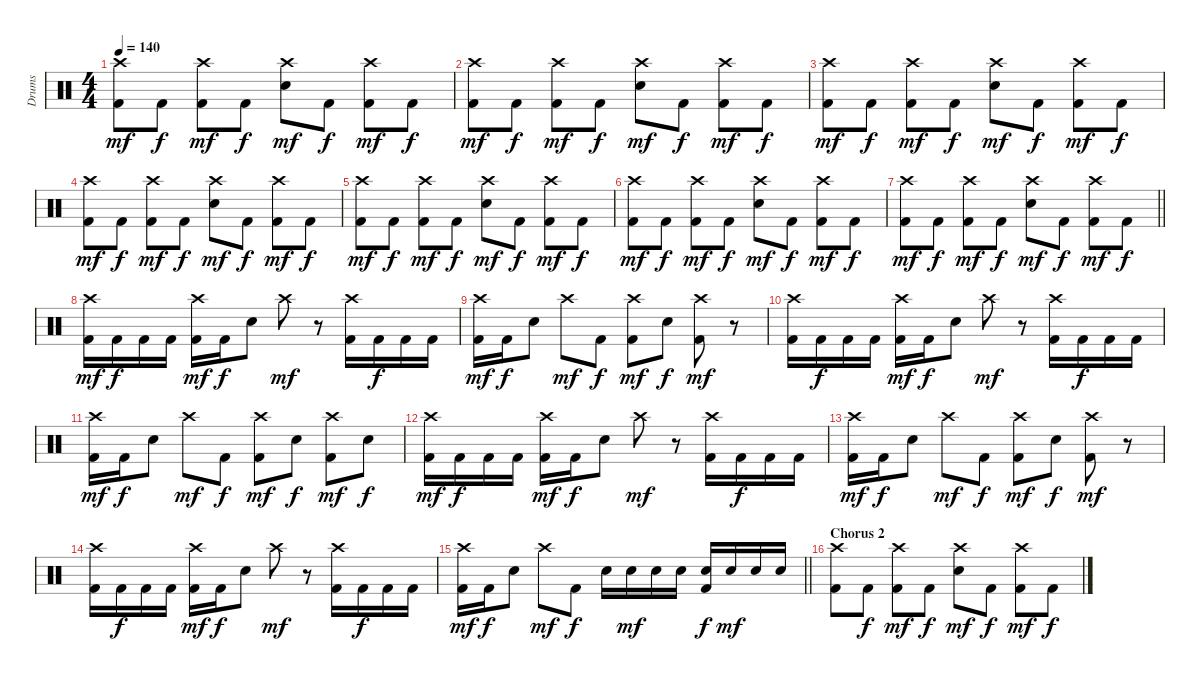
\track ("Drums" "Drums") {instrument percussion}
\staff {score}
\articulation defaults
\ts (4 4)
\tempo 140
\clef neutral
\ks c
("Crash high (hit)" "Kick (hit) 2").8{dy mf} "Kick (hit) 2".8{dy f} ("Crash high (hit)" "Kick (hit) 2").8{dy mf} "Kick (hit) 2".8{dy f} ("Crash high (hit)" "Snare (hit) 2").8{dy mf} "Kick (hit) 2".8{dy f} ("Crash high (hit)" "Kick (hit) 2").8{dy mf} "Kick (hit) 2".8{dy f} |
("Crash high (hit)" "Kick (hit) 2").8{dy mf} "Kick (hit) 2".8{dy f} ("Crash high (hit)" "Kick (hit) 2").8{dy mf} "Kick (hit) 2".8{dy f} ("Crash high (hit)" "Snare (hit) 2").8{dy mf} "Kick (hit) 2".8{dy f} ("Crash high (hit)" "Kick (hit) 2").8{dy mf} "Kick (hit) 2".8{dy f} |
("Crash high (hit)" "Kick (hit) 2").8{dy mf} "Kick (hit) 2".8{dy f} ("Crash high (hit)" "Kick (hit) 2").8{dy mf} "Kick (hit) 2".8{dy f} ("Crash high (hit)" "Snare (hit) 2").8{dy mf} "Kick (hit) 2".8{dy f} ("Crash high (hit)" "Kick (hit) 2").8{dy mf} "Kick (hit) 2".8{dy f} |
("Crash high (hit)" "Kick (hit) 2").8{dy mf} "Kick (hit) 2".8{dy f} ("Crash high (hit)" "Kick (hit) 2").8{dy mf} "Kick (hit) 2".8{dy f} ("Crash high (hit)" "Snare (hit) 2").8{dy mf} "Kick (hit) 2".8{dy f} ("Crash high (hit)" "Kick (hit) 2").8{dy mf} "Kick (hit) 2".8{dy f} |
("Crash high (hit)" "Kick (hit) 2").8{dy mf} "Kick (hit) 2".8{dy f} ("Crash high (hit)" "Kick (hit) 2").8{dy mf} "Kick (hit) 2".8{dy f} ("Crash high (hit)" "Snare (hit) 2").8{dy mf} "Kick (hit) 2".8{dy f} ("Crash high (hit)" "Kick (hit) 2").8{dy mf} "Kick (hit) 2".8{dy f} |
("Crash high (hit)" "Kick (hit) 2").8{dy mf} "Kick (hit) 2".8{dy f} ("Crash high (hit)" "Kick (hit) 2").8{dy mf} "Kick (hit) 2".8{dy f} ("Crash high (hit)" "Snare (hit) 2").8{dy mf} "Kick (hit) 2".8{dy f} ("Crash high (hit)" "Kick (hit) 2").8{dy mf} "Kick (hit) 2".8{dy f} |
\barLineRight lightlight
("Crash high (hit)" "Kick (hit) 2").8{dy mf} "Kick (hit) 2".8{dy f} ("Crash high (hit)" "Kick (hit) 2").8{dy mf} "Kick (hit) 2".8{dy f} ("Crash high (hit)" "Snare (hit) 2").8{dy mf} "Kick (hit) 2".8{dy f} ("Crash high (hit)" "Kick (hit) 2").8{dy mf} "Kick (hit) 2".8{dy f} |
("Crash high (hit)" "Kick (hit) 2").16{dy mf} "Kick (hit) 2".16{dy f} "Kick (hit) 2".16 "Kick (hit) 2".16 ("Crash high (hit)" "Kick (hit) 2").16{dy mf} "Kick (hit) 2".16{dy f} "Snare (hit) 2".8 "Crash high (hit)".8{dy mf} r.8 ("Crash high (hit)" "Kick (hit) 2").16 "Kick (hit) 2".16{dy f} "Kick (hit) 2".16 "Kick (hit) 2".16 |
("Crash high (hit)" "Kick (hit) 2").16{dy mf} "Kick (hit) 2".16{dy f} "Snare (hit) 2".8 "Crash high (hit)".8{dy mf} "Kick (hit) 2".8{dy f} ("Crash high (hit)" "Kick (hit) 2").8{dy mf} "Snare (hit) 2".8{dy f} ("Crash high (hit)" "Kick (hit) 2").8{dy mf} r.8 |
("Crash high (hit)" "Kick (hit) 2").16 "Kick (hit) 2".16{dy f} "Kick (hit) 2".16 "Kick (hit) 2".16 ("Crash high (hit)" "Kick (hit) 2").16{dy mf} "Kick (hit) 2".16{dy f} "Snare (hit) 2".8 "Crash high (hit)".8{dy mf} r.8 ("Crash high (hit)" "Kick (hit) 2").16 "Kick (hit) 2".16{dy f} "Kick (hit) 2".16 "Kick (hit) 2".16 |
("Crash high (hit)" "Kick (hit) 2").16{dy mf} "Kick (hit) 2".16{dy f} "Snare (hit) 2".8 "Crash high (hit)".8{dy mf} "Kick (hit) 2".8{dy f} ("Crash high (hit)" "Kick (hit) 2").8{dy mf} "Snare (hit) 2".8{dy f} ("Crash high (hit)" "Kick (hit) 2").8{dy mf} "Snare (hit) 2".8{dy f} |
("Crash high (hit)" "Kick (hit) 2").16{dy mf} "Kick (hit) 2".16{dy f} "Kick (hit) 2".16 "Kick (hit) 2".16 ("Crash high (hit)" "Kick (hit) 2").16{dy mf} "Kick (hit) 2".16{dy f} "Snare (hit) 2".8 "Crash high (hit)".8{dy mf} r.8 ("Crash high (hit)" "Kick (hit) 2").16 "Kick (hit) 2".16{dy f} "Kick (hit) 2".16 "Kick (hit) 2".16 |
("Crash high (hit)" "Kick (hit) 2").16{dy mf} "Kick (hit) 2".16{dy f} "Snare (hit) 2".8 "Crash high (hit)".8{dy mf} "Kick (hit) 2".8{dy f} ("Crash high (hit)" "Kick (hit) 2").8{dy mf} "Snare (hit) 2".8{dy f} ("Crash high (hit)" "Kick (hit) 2").8{dy mf} r.8 |
("Crash high (hit)" "Kick (hit) 2").16 "Kick (hit) 2".16{dy f} "Kick (hit) 2".16 "Kick (hit) 2".16 ("Crash high (hit)" "Kick (hit) 2").16{dy mf} "Kick (hit) 2".16{dy f} "Snare (hit) 2".8 "Crash high (hit)".8{dy mf} r.8 ("Crash high (hit)" "Kick (hit) 2").16 "Kick (hit) 2".16{dy f} "Kick (hit) 2".16 "Kick (hit) 2".16 |
\barLineRight lightlight
("Crash high (hit)" "Kick (hit) 2").16{dy mf} "Kick (hit) 2".16{dy f} "Snare (hit) 2".8 "Crash high (hit)".8{dy mf} "Kick (hit) 2".8{dy f} "Snare (hit) 2".16 "Snare (hit) 2".16{dy mf} "Snare (hit) 2".16 "Snare (hit) 2".16 ("Snare (hit) 2" "Kick (hit) 2").16{dy f} "Snare (hit) 2".16{dy mf} "Snare (hit) 2".16 "Snare (hit) 2".16 |
\section ("" "Chorus 2")
("Crash high (hit)" "Kick (hit) 2").8 "Kick (hit) 2".8{dy f} ("Crash high (hit)" "Kick (hit) 2").8{dy mf} "Kick (hit) 2".8{dy f} ("Crash high (hit)" "Snare (hit) 2").8{dy mf} "Kick (hit) 2".8{dy f} ("Crash high (hit)" "Kick (hit) 2").8{dy mf} "Kick (hit) 2".8{dy f}
